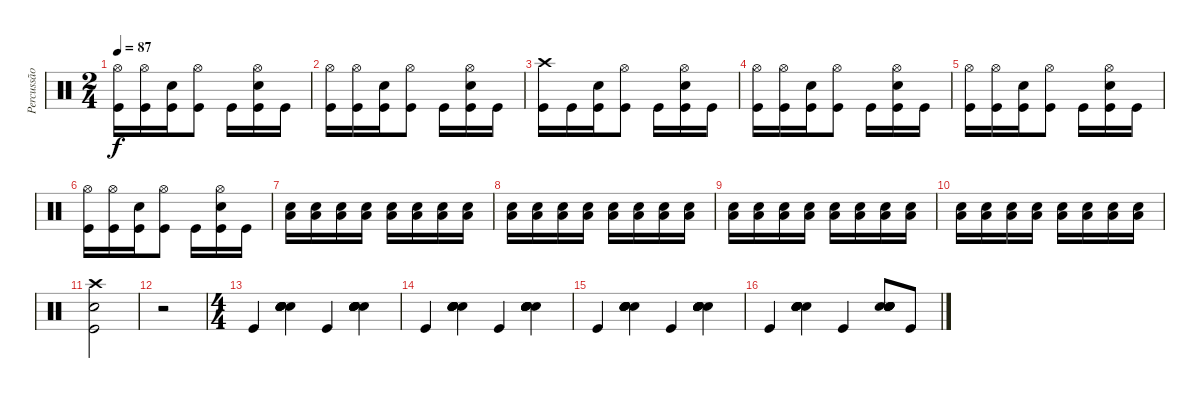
\track ("Percussão" "Percussão") {instrument percussion}
\staff {score}
\articulation defaults
\ts (2 4)
\tempo 87
\clef neutral
\ks c
("Hi-Hat (open)" "Kick (hit)").16{dy f} ("Hi-Hat (open)" "Kick (hit)").16 ("Snare (hit) 2" "Kick (hit)").16 ("Hi-Hat (open)" "Kick (hit)").8 "Kick (hit)".16 ("Hi-Hat (open)" "Snare (hit) 2" "Kick (hit)").16 "Kick (hit)".16 |
("Hi-Hat (open)" "Kick (hit)").16 ("Hi-Hat (open)" "Kick (hit)").16 ("Snare (hit) 2" "Kick (hit)").16 ("Hi-Hat (open)" "Kick (hit)").8 "Kick (hit)".16 ("Hi-Hat (open)" "Snare (hit) 2" "Kick (hit)").16 "Kick (hit)".16 |
("Crash high (hit)" "Kick (hit)").16 "Kick (hit)".16 ("Snare (hit) 2" "Kick (hit)").16 ("Hi-Hat (open)" "Kick (hit)").8 "Kick (hit)".16 ("Hi-Hat (open)" "Snare (hit) 2" "Kick (hit)").16 "Kick (hit)".16 |
("Hi-Hat (open)" "Kick (hit)").16 ("Hi-Hat (open)" "Kick (hit)").16 ("Snare (hit) 2" "Kick (hit)").16 ("Hi-Hat (open)" "Kick (hit)").8 "Kick (hit)".16 ("Hi-Hat (open)" "Snare (hit) 2" "Kick (hit)").16 "Kick (hit)".16 |
("Hi-Hat (open)" "Kick (hit)").16 ("Hi-Hat (open)" "Kick (hit)").16 ("Snare (hit) 2" "Kick (hit)").16 ("Hi-Hat (open)" "Kick (hit)").8 "Kick (hit)".16 ("Hi-Hat (open)" "Snare (hit) 2" "Kick (hit)").16 "Kick (hit)".16 |
("Hi-Hat (open)" "Kick (hit)").16 ("Hi-Hat (open)" "Kick (hit)").16 ("Snare (hit) 2" "Kick (hit)").16 ("Hi-Hat (open)" "Kick (hit)").8 "Kick (hit)".16 ("Hi-Hat (open)" "Snare (hit) 2" "Kick (hit)").16 "Kick (hit)".16 |
("Snare (hit) 2" "Low Floor Tom (hit)").16 ("Snare (hit) 2" "Low Floor Tom (hit)").16 ("Snare (hit) 2" "Low Floor Tom (hit)").16 ("Snare (hit) 2" "Low Floor Tom (hit)").16 ("Snare (hit) 2" "Low Floor Tom (hit)").16 ("Snare (hit) 2" "Low Floor Tom (hit)").16 ("Snare (hit) 2" "Low Floor Tom (hit)").16 ("Snare (hit) 2" "Low Floor Tom (hit)").16 |
("Snare (hit) 2" "Low Floor Tom (hit)").16 ("Snare (hit) 2" "Low Floor Tom (hit)").16 ("Snare (hit) 2" "Low Floor Tom (hit)").16 ("Snare (hit) 2" "Low Floor Tom (hit)").16 ("Snare (hit) 2" "Low Floor Tom (hit)").16 ("Snare (hit) 2" "Low Floor Tom (hit)").16 ("Snare (hit) 2" "Low Floor Tom (hit)").16 ("Snare (hit) 2" "Low Floor Tom (hit)").16 |
("Snare (hit) 2" "Low Floor Tom (hit)").16 ("Snare (hit) 2" "Low Floor Tom (hit)").16 ("Snare (hit) 2" "Low Floor Tom (hit)").16 ("Snare (hit) 2" "Low Floor Tom (hit)").16 ("Snare (hit) 2" "Low Floor Tom (hit)").16 ("Snare (hit) 2" "Low Floor Tom (hit)").16 ("Snare (hit) 2" "Low Floor Tom (hit)").16 ("Snare (hit) 2" "Low Floor Tom (hit)").16 |
("Snare (hit) 2" "Low Floor Tom (hit)").16 ("Snare (hit) 2" "Low Floor Tom (hit)").16 ("Snare (hit) 2" "Low Floor Tom (hit)").16 ("Snare (hit) 2" "Low Floor Tom (hit)").16 ("Snare (hit) 2" "Low Floor Tom (hit)").16 ("Snare (hit) 2" "Low Floor Tom (hit)").16 ("Snare (hit) 2" "Low Floor Tom (hit)").16 ("Snare (hit) 2" "Low Floor Tom (hit)").16 |
("Crash high (hit)" "Snare (hit) 2" "Kick (hit)").2 |
r.2 |
\ts (4 4)
"Kick (hit)".4 ("Snare (hit) 2" "Snare (hit) 2" "Snare (hit) 2" "Snare (hit) 2" "Snare (hit) 2" "Snare (hit) 2").4 "Kick (hit)".4 ("Snare (hit) 2" "Snare (hit) 2" "Snare (hit) 2" "Snare (hit) 2" "Snare (hit) 2" "Snare (hit) 2").4 |
"Kick (hit)".4 ("Snare (hit) 2" "Snare (hit) 2" "Snare (hit) 2" "Snare (hit) 2" "Snare (hit) 2" "Snare (hit) 2").4 "Kick (hit)".4 ("Snare (hit) 2" "Snare (hit) 2" "Snare (hit) 2" "Snare (hit) 2" "Snare (hit) 2" "Snare (hit) 2").4 |
"Kick (hit)".4 ("Snare (hit) 2" "Snare (hit) 2" "Snare (hit) 2" "Snare (hit) 2" "Snare (hit) 2" "Snare (hit) 2").4 "Kick (hit)".4 ("Snare (hit) 2" "Snare (hit) 2" "Snare (hit) 2" "Snare (hit) 2" "Snare (hit) 2" "Snare (hit) 2").4 |
"Kick (hit)".4 ("Snare (hit) 2" "Snare (hit) 2" "Snare (hit) 2" "Snare (hit) 2" "Snare (hit) 2" "Snare (hit) 2").4 "Kick (hit)".4 ("Snare (hit) 2" "Snare (hit) 2" "Snare (hit) 2" "Snare (hit) 2" "Snare (hit) 2" "Snare (hit) 2").8 "Kick (hit)".8
